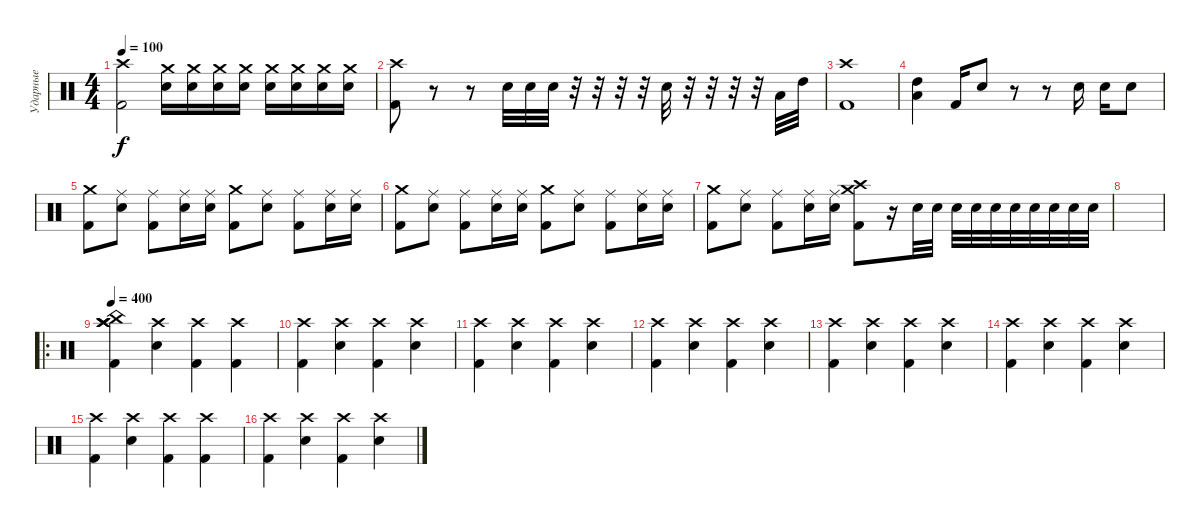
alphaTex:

\track ("Ударные" "Ударные") {instrument percussion}
\staff {score}
\articulation defaults
\ts (4 4)
\tempo 100
\clef neutral
\ks c
("Kick (hit) 2" "Crash high (hit)").2{dy f} ("Electric Snare (hit)" "Crash medium (hit)").16 ("Electric Snare (hit)" "Crash medium (hit)").16 ("Electric Snare (hit)" "Crash medium (hit)").16 ("Electric Snare (hit)" "Crash medium (hit)").16 ("Electric Snare (hit)" "Crash medium (hit)").16 ("Electric Snare (hit)" "Crash medium (hit)").16 ("Electric Snare (hit)" "Crash medium (hit)").16 ("Electric Snare (hit)" "Crash medium (hit)").16 |
("Kick (hit) 2" "Crash high (hit)").8 r.8 r.8 "Electric Snare (hit)".32 "Electric Snare (hit)".32 "Electric Snare (hit)".32 r.32 r.32 r.32 r.32 "Electric Snare (hit)".32 r.32 r.32 r.32 r.32 "Low Tom (hit)".32 "High Tom (hit)".32 |
("Kick (hit) 2" "Crash high (hit)").1 |
("Low Tom (hit)" "High Tom (hit)").4 "Kick (hit) 2".16 "Electric Snare (hit)".8 r.8 r.8 "Electric Snare (hit)".16 "Electric Snare (hit)".16 "Electric Snare (hit)".8 |
("Kick (hit) 2" "Crash medium (hit)").8 ("Electric Snare (hit)" "Ride (middle)").8 ("Kick (hit) 2" "Ride (middle)").8 ("Electric Snare (hit)" "Ride (middle)").16 ("Electric Snare (hit)" "Ride (middle)").16 ("Kick (hit) 2" "Crash medium (hit)").8 ("Electric Snare (hit)" "Ride (middle)").8 ("Kick (hit) 2" "Ride (middle)").8 ("Electric Snare (hit)" "Ride (middle)").16 ("Electric Snare (hit)" "Ride (middle)").16 |
("Kick (hit) 2" "Crash medium (hit)").8 ("Electric Snare (hit)" "Ride (middle)").8 ("Kick (hit) 2" "Ride (middle)").8 ("Electric Snare (hit)" "Ride (middle)").16 ("Electric Snare (hit)" "Ride (middle)").16 ("Kick (hit) 2" "Crash medium (hit)").8 ("Electric Snare (hit)" "Ride (middle)").8 ("Kick (hit) 2" "Ride (middle)").8 ("Electric Snare (hit)" "Ride (middle)").16 ("Electric Snare (hit)" "Ride (middle)").16 |
("Kick (hit) 2" "Crash medium (hit)").8 ("Electric Snare (hit)" "Ride (middle)").8 ("Kick (hit) 2" "Ride (middle)").8 ("Electric Snare (hit)" "Ride (middle)").16 ("Electric Snare (hit)" "Ride (middle)").16 ("Kick (hit) 2" "Crash high (hit)" "Crash medium (hit)").8 r.16 "Electric Snare (hit)".32 "Electric Snare (hit)".32 "Electric Snare (hit)".32 "Electric Snare (hit)".32 "Electric Snare (hit)".32 "Electric Snare (hit)".32 "Electric Snare (hit)".32 "Electric Snare (hit)".32 "Electric Snare (hit)".32 "Electric Snare (hit)".32 |
|
\ro
\tempo 400
("Kick (hit) 2" "Crash high (hit)" "Crash high (hit)" "Crash high (hit)" "China (hit)").4 ("Electric Snare (hit)" "Crash high (hit)").4 ("Kick (hit) 2" "Crash high (hit)").4 ("Kick (hit) 2" "Crash high (hit)").4 |
("Kick (hit) 2" "Crash high (hit)").4 ("Electric Snare (hit)" "Crash high (hit)").4 ("Kick (hit) 2" "Crash high (hit)").4 ("Electric Snare (hit)" "Crash high (hit)").4 |
("Kick (hit) 2" "Crash high (hit)").4 ("Electric Snare (hit)" "Crash high (hit)").4 ("Kick (hit) 2" "Crash high (hit)").4 ("Electric Snare (hit)" "Crash high (hit)").4 |
("Kick (hit) 2" "Crash high (hit)").4 ("Electric Snare (hit)" "Crash high (hit)").4 ("Kick (hit) 2" "Crash high (hit)").4 ("Electric Snare (hit)" "Crash high (hit)").4 |
("Kick (hit) 2" "Crash high (hit)").4 ("Electric Snare (hit)" "Crash high (hit)").4 ("Kick (hit) 2" "Crash high (hit)").4 ("Electric Snare (hit)" "Crash high (hit)").4 |
("Kick (hit) 2" "Crash high (hit)").4 ("Electric Snare (hit)" "Crash high (hit)").4 ("Kick (hit) 2" "Crash high (hit)").4 ("Electric Snare (hit)" "Crash high (hit)").4 |
("Kick (hit) 2" "Crash high (hit)").4 ("Electric Snare (hit)" "Crash high (hit)").4 ("Kick (hit) 2" "Crash high (hit)").4 ("Kick (hit) 2" "Crash high (hit)").4 |
("Kick (hit) 2" "Crash high (hit)").4 ("Electric Snare (hit)" "Crash high (hit)").4 ("Kick (hit) 2" "Crash high (hit)").4 ("Electric Snare (hit)" "Crash high (hit)").4
